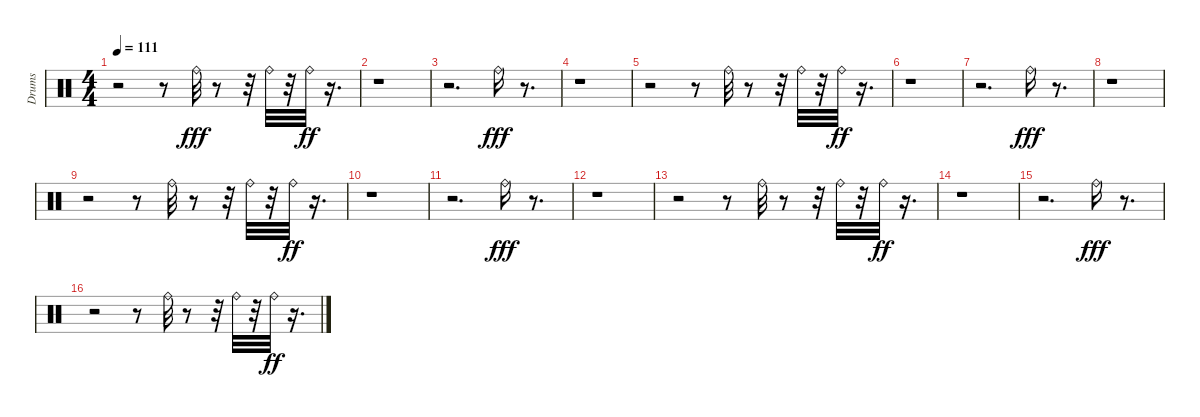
\track ("Drums" "Drums") {instrument percussion}
\staff {score}
\articulation defaults
\ts (4 4)
\tempo 111
\clef neutral
\ks c
r.2{dy fff} r.8 "Ride (bell)".32 r.8 r.32 "Ride (bell)".32 r.32 "Ride (bell)".32{dy ff} r.16{d} |
r.1 |
r.2{d} "Ride (bell)".16{dy fff} r.8{d} |
r.1 |
r.2 r.8 "Ride (bell)".32 r.8 r.32 "Ride (bell)".32 r.32 "Ride (bell)".32{dy ff} r.16{d} |
r.1 |
r.2{d} "Ride (bell)".16{dy fff} r.8{d} |
r.1 |
r.2 r.8 "Ride (bell)".32 r.8 r.32 "Ride (bell)".32 r.32 "Ride (bell)".32{dy ff} r.16{d} |
r.1 |
r.2{d} "Ride (bell)".16{dy fff} r.8{d} |
r.1 |
r.2 r.8 "Ride (bell)".32 r.8 r.32 "Ride (bell)".32 r.32 "Ride (bell)".32{dy ff} r.16{d} |
r.1 |
r.2{d} "Ride (bell)".16{dy fff} r.8{d} |
r.2 r.8 "Ride (bell)".32 r.8 r.32 "Ride (bell)".32 r.32 "Ride (bell)".32{dy ff} r.16{d}
